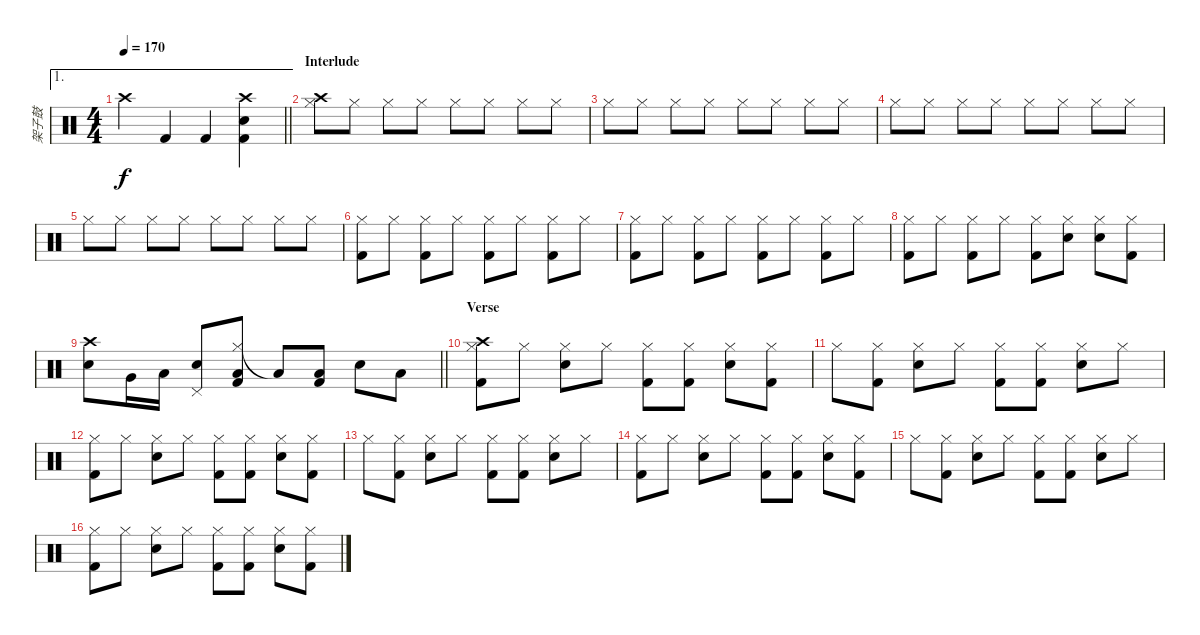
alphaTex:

\track ("架子鼓" "架子鼓") {instrument percussion}
\staff {score}
\articulation defaults
\ae 1
\ts (4 4)
\tempo 170
\clef neutral
\barLineRight lightlight
\ks c "Crash high (hit)"{t}.4{dy f} "Kick (hit) 2".4 "Kick (hit) 2".4
("Crash high (hit)" "Snare (hit) 2" "Kick (hit) 2").4 |
\section ("" "Interlude")
("Hi-Hat (closed)" "Crash high (hit)").8 "Hi-Hat (closed)".8 "Hi-Hat (closed)".8 "Hi-Hat (closed)".8 "Hi-Hat (closed)".8 "Hi-Hat (closed)".8 "Hi-Hat (closed)".8 "Hi-Hat (closed)".8 |
"Hi-Hat (closed)".8 "Hi-Hat (closed)".8 "Hi-Hat (closed)".8 "Hi-Hat (closed)".8 "Hi-Hat (closed)".8 "Hi-Hat (closed)".8 "Hi-Hat (closed)".8 "Hi-Hat (closed)".8 |
"Hi-Hat (closed)".8 "Hi-Hat (closed)".8 "Hi-Hat (closed)".8 "Hi-Hat (closed)".8 "Hi-Hat (closed)".8 "Hi-Hat (closed)".8 "Hi-Hat (closed)".8 "Hi-Hat (closed)".8 |
"Hi-Hat (closed)".8 "Hi-Hat (closed)".8 "Hi-Hat (closed)".8 "Hi-Hat (closed)".8 "Hi-Hat (closed)".8 "Hi-Hat (closed)".8 "Hi-Hat (closed)".8 "Hi-Hat (closed)".8 |
("Hi-Hat (closed)" "Kick (hit) 2").8 "Hi-Hat (closed)".8 ("Hi-Hat (closed)" "Kick (hit) 2").8 "Hi-Hat (closed)".8 ("Hi-Hat (closed)" "Kick (hit) 2").8 "Hi-Hat (closed)".8 ("Hi-Hat (closed)" "Kick (hit) 2").8 "Hi-Hat (closed)".8 |
("Hi-Hat (closed)" "Kick (hit) 2").8 "Hi-Hat (closed)".8 ("Hi-Hat (closed)" "Kick (hit) 2").8 "Hi-Hat (closed)".8 ("Hi-Hat (closed)" "Kick (hit) 2").8 "Hi-Hat (closed)".8 ("Hi-Hat (closed)" "Kick (hit) 2").8 "Hi-Hat (closed)".8 |
("Hi-Hat (closed)" "Kick (hit) 2").8 "Hi-Hat (closed)".8 ("Hi-Hat (closed)" "Kick (hit) 2").8 "Hi-Hat (closed)".8 ("Hi-Hat (closed)" "Kick (hit) 2").8 ("Hi-Hat (closed)" "Snare (hit) 2").8 ("Hi-Hat (closed)" "Snare (hit) 2").8 ("Hi-Hat (closed)" "Kick (hit) 2").8 |
\barLineRight lightlight
("Crash high (hit)" "Snare (hit) 2").8 "Very Low Tom (hit)".16 "Low Tom (hit)".16 ("Pedal Hi-Hat (hit)" "Snare (hit) 2").8 ("Hi-Hat (closed)" "Low Tom (hit)" "Kick (hit) 2").8 "Low Tom (hit)"{t}.8 ("Low Tom (hit)" "Kick (hit) 2").8 "Snare (hit) 2".8 "Low Tom (hit)".8 |
\section ("" "Verse")
("Hi-Hat (closed)" "Crash high (hit)" "Kick (hit) 2").8 "Hi-Hat (closed)".8 ("Hi-Hat (closed)" "Snare (hit) 2").8 "Hi-Hat (closed)".8 ("Hi-Hat (closed)" "Kick (hit) 2").8 ("Hi-Hat (closed)" "Kick (hit) 2").8 ("Hi-Hat (closed)" "Snare (hit) 2").8 ("Hi-Hat (closed)" "Kick (hit) 2").8 |
"Hi-Hat (closed)".8 ("Hi-Hat (closed)" "Kick (hit) 2").8 ("Hi-Hat (closed)" "Snare (hit) 2").8 "Hi-Hat (closed)".8 ("Hi-Hat (closed)" "Kick (hit) 2").8 ("Hi-Hat (closed)" "Kick (hit) 2").8 ("Hi-Hat (closed)" "Snare (hit) 2").8 "Hi-Hat (closed)".8 |
("Hi-Hat (closed)" "Kick (hit) 2").8 "Hi-Hat (closed)".8 ("Hi-Hat (closed)" "Snare (hit) 2").8 "Hi-Hat (closed)".8 ("Hi-Hat (closed)" "Kick (hit) 2").8 ("Hi-Hat (closed)" "Kick (hit) 2").8 ("Hi-Hat (closed)" "Snare (hit) 2").8 ("Hi-Hat (closed)" "Kick (hit) 2").8 |
"Hi-Hat (closed)".8 ("Hi-Hat (closed)" "Kick (hit) 2").8 ("Hi-Hat (closed)" "Snare (hit) 2").8 "Hi-Hat (closed)".8 ("Hi-Hat (closed)" "Kick (hit) 2").8 ("Hi-Hat (closed)" "Kick (hit) 2").8 ("Hi-Hat (closed)" "Snare (hit) 2").8 "Hi-Hat (closed)".8 |
("Hi-Hat (closed)" "Kick (hit) 2").8 "Hi-Hat (closed)".8 ("Hi-Hat (closed)" "Snare (hit) 2").8 "Hi-Hat (closed)".8 ("Hi-Hat (closed)" "Kick (hit) 2").8 ("Hi-Hat (closed)" "Kick (hit) 2").8 ("Hi-Hat (closed)" "Snare (hit) 2").8 ("Hi-Hat (closed)" "Kick (hit) 2").8 |
"Hi-Hat (closed)".8 ("Hi-Hat (closed)" "Kick (hit) 2").8 ("Hi-Hat (closed)" "Snare (hit) 2").8 "Hi-Hat (closed)".8 ("Hi-Hat (closed)" "Kick (hit) 2").8 ("Hi-Hat (closed)" "Kick (hit) 2").8 ("Hi-Hat (closed)" "Snare (hit) 2").8 "Hi-Hat (closed)".8 |
("Hi-Hat (closed)" "Kick (hit) 2").8 "Hi-Hat (closed)".8 ("Hi-Hat (closed)" "Snare (hit) 2").8 "Hi-Hat (closed)".8 ("Hi-Hat (closed)" "Kick (hit) 2").8 ("Hi-Hat (closed)" "Kick (hit) 2").8 ("Hi-Hat (closed)" "Snare (hit) 2").8 ("Hi-Hat (closed)" "Kick (hit) 2").8
